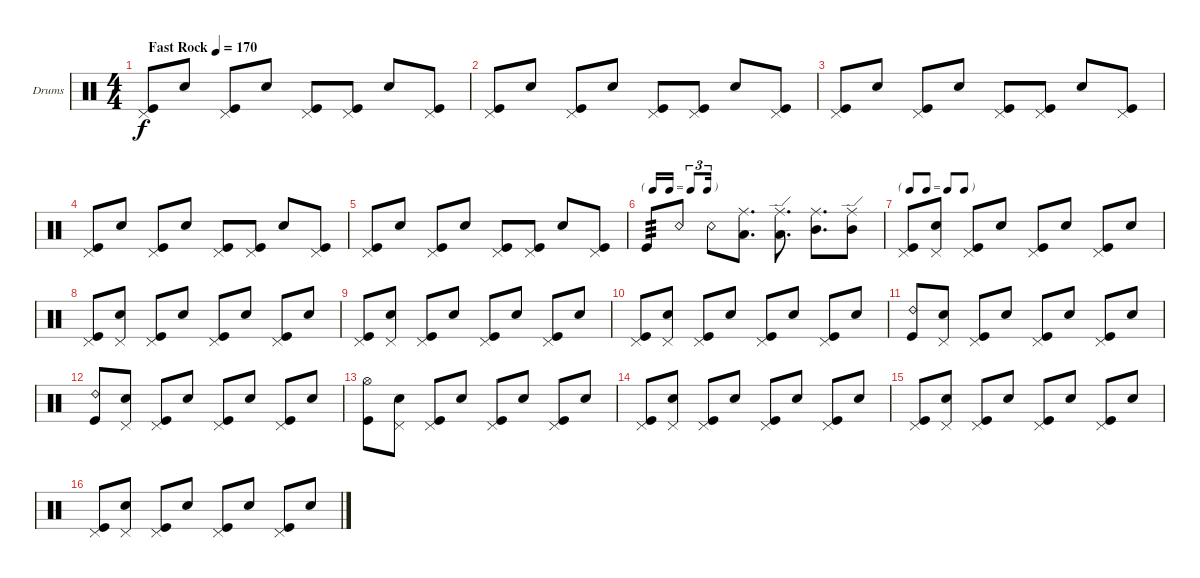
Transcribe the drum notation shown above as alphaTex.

\bracketExtendMode groupsimilarinstruments
\firstSystemTrackNameOrientation horizontal
\otherSystemsTrackNameOrientation horizontal
\track ("Danya" "Drums") {mute instrument percussion}
\staff {score}
\articulation defaults
\ts (4 4)
\beaming (8 2 2 2 2)
\tempo (170 "Fast Rock")
\clef neutral
\scale
0.474178
\ks c
("Kick (hit)" "Pedal Hi-Hat (hit)").8{dy f} "Snare (hit) 2".8 ("Kick (hit)" "Pedal Hi-Hat (hit)").8 "Snare (hit) 2".8 ("Kick (hit)" "Pedal Hi-Hat (hit)").8 ("Kick (hit)" "Pedal Hi-Hat (hit)").8 "Snare (hit) 2".8 ("Kick (hit)" "Pedal Hi-Hat (hit)").8 |
\scale
0.262911 ("Kick (hit)" "Pedal Hi-Hat (hit)").8 "Snare (hit) 2".8 ("Kick (hit)" "Pedal Hi-Hat (hit)").8 "Snare (hit) 2".8 ("Kick (hit)" "Pedal Hi-Hat (hit)").8 ("Kick (hit)" "Pedal Hi-Hat (hit)").8 "Snare (hit) 2".8 ("Kick (hit)" "Pedal Hi-Hat (hit)").8 |
\scale
0.262911 ("Kick (hit)" "Pedal Hi-Hat (hit)").8 "Snare (hit) 2".8 ("Kick (hit)" "Pedal Hi-Hat (hit)").8 "Snare (hit) 2".8 ("Kick (hit)" "Pedal Hi-Hat (hit)").8 ("Kick (hit)" "Pedal Hi-Hat (hit)").8 "Snare (hit) 2".8 ("Kick (hit)" "Pedal Hi-Hat (hit)").8 |
\scale
0.333333 ("Kick (hit)" "Pedal Hi-Hat (hit)").8 "Snare (hit) 2".8 ("Kick (hit)" "Pedal Hi-Hat (hit)").8 "Snare (hit) 2".8 ("Kick (hit)" "Pedal Hi-Hat (hit)").8 ("Kick (hit)" "Pedal Hi-Hat (hit)").8 "Snare (hit) 2".8 ("Kick (hit)" "Pedal Hi-Hat (hit)").8 |
\scale
0.333333 ("Kick (hit)" "Pedal Hi-Hat (hit)").8 "Snare (hit) 2".8 ("Kick (hit)" "Pedal Hi-Hat (hit)").8 "Snare (hit) 2".8 ("Kick (hit)" "Pedal Hi-Hat (hit)").8 ("Kick (hit)" "Pedal Hi-Hat (hit)").8 "Snare (hit) 2".8 ("Kick (hit)" "Pedal Hi-Hat (hit)").8 |
\tf triplet16th
\scale
0.333333 "Kick (hit)".8{tp 3} "Snare (rim shot)".8 "Snare (rim shot)".8 ("Low Tom (hit)" "Ride (middle)").8{d} ("Low Tom (hit)" "Ride (edge)").8{d} ("Mid Tom (hit)" "Ride (middle)").8{d} ("Mid Tom (hit)" "Ride (edge)").8 |
\tf none
\scale
0.333333 ("Kick (hit)" "Pedal Hi-Hat (hit)").8 ("Snare (hit) 2" "Pedal Hi-Hat (hit)").8 ("Kick (hit)" "Pedal Hi-Hat (hit)").8 "Snare (hit) 2".8 ("Pedal Hi-Hat (hit)" "Kick (hit)").8 "Snare (hit) 2".8 ("Kick (hit)" "Pedal Hi-Hat (hit)").8 "Snare (hit) 2".8 |
\scale
0.333333 ("Kick (hit)" "Pedal Hi-Hat (hit)").8 ("Snare (hit) 2" "Pedal Hi-Hat (hit)").8 ("Kick (hit)" "Pedal Hi-Hat (hit)").8 "Snare (hit) 2".8 ("Pedal Hi-Hat (hit)" "Kick (hit)").8 "Snare (hit) 2".8 ("Kick (hit)" "Pedal Hi-Hat (hit)").8 "Snare (hit) 2".8 |
\scale
0.333333 ("Kick (hit)" "Pedal Hi-Hat (hit)").8 ("Snare (hit) 2" "Pedal Hi-Hat (hit)").8 ("Kick (hit)" "Pedal Hi-Hat (hit)").8 "Snare (hit) 2".8 ("Pedal Hi-Hat (hit)" "Kick (hit)").8 "Snare (hit) 2".8 ("Kick (hit)" "Pedal Hi-Hat (hit)").8 "Snare (hit) 2".8 |
\scale
0.333333 ("Kick (hit)" "Pedal Hi-Hat (hit)").8 ("Snare (hit) 2" "Pedal Hi-Hat (hit)").8 ("Kick (hit)" "Pedal Hi-Hat (hit)").8 "Snare (hit) 2".8 ("Pedal Hi-Hat (hit)" "Kick (hit)").8 "Snare (hit) 2".8 ("Kick (hit)" "Pedal Hi-Hat (hit)").8 "Snare (hit) 2".8 |
\scale
0.333333 ("Kick (hit)" "Ride (bell) 2").8 ("Snare (hit) 2" "Pedal Hi-Hat (hit)").8 ("Kick (hit)" "Pedal Hi-Hat (hit)").8 "Snare (hit) 2".8 ("Pedal Hi-Hat (hit)" "Kick (hit)").8 "Snare (hit) 2".8 ("Kick (hit)" "Pedal Hi-Hat (hit)").8 "Snare (hit) 2".8 |
\scale
0.333333 ("Kick (hit)" "Ride (bell) 2").8 ("Snare (hit) 2" "Pedal Hi-Hat (hit)").8 ("Kick (hit)" "Pedal Hi-Hat (hit)").8 "Snare (hit) 2".8 ("Pedal Hi-Hat (hit)" "Kick (hit)").8 "Snare (hit) 2".8 ("Kick (hit)" "Pedal Hi-Hat (hit)").8 "Snare (hit) 2".8 |
\scale
0.333333 ("Kick (hit)" "Hi-Hat (open)").8 ("Snare (hit) 2" "Pedal Hi-Hat (hit)").8 ("Kick (hit)" "Pedal Hi-Hat (hit)").8 "Snare (hit) 2".8 ("Pedal Hi-Hat (hit)" "Kick (hit)").8 "Snare (hit) 2".8 ("Kick (hit)" "Pedal Hi-Hat (hit)").8 "Snare (hit) 2".8 |
\scale
0.333333 ("Kick (hit)" "Pedal Hi-Hat (hit)").8 ("Snare (hit) 2" "Pedal Hi-Hat (hit)").8 ("Kick (hit)" "Pedal Hi-Hat (hit)").8 "Snare (hit) 2".8 ("Pedal Hi-Hat (hit)" "Kick (hit)").8 "Snare (hit) 2".8 ("Kick (hit)" "Pedal Hi-Hat (hit)").8 "Snare (hit) 2".8 |
\scale
0.333333 ("Kick (hit)" "Pedal Hi-Hat (hit)").8 ("Snare (hit) 2" "Pedal Hi-Hat (hit)").8 ("Kick (hit)" "Pedal Hi-Hat (hit)").8 "Snare (hit) 2".8 ("Pedal Hi-Hat (hit)" "Kick (hit)").8 "Snare (hit) 2".8 ("Kick (hit)" "Pedal Hi-Hat (hit)").8 "Snare (hit) 2".8 |
\scale
0.333333 ("Kick (hit)" "Pedal Hi-Hat (hit)").8 ("Snare (hit) 2" "Pedal Hi-Hat (hit)").8 ("Kick (hit)" "Pedal Hi-Hat (hit)").8 "Snare (hit) 2".8 ("Pedal Hi-Hat (hit)" "Kick (hit)").8 "Snare (hit) 2".8 ("Kick (hit)" "Pedal Hi-Hat (hit)").8 "Snare (hit) 2".8
